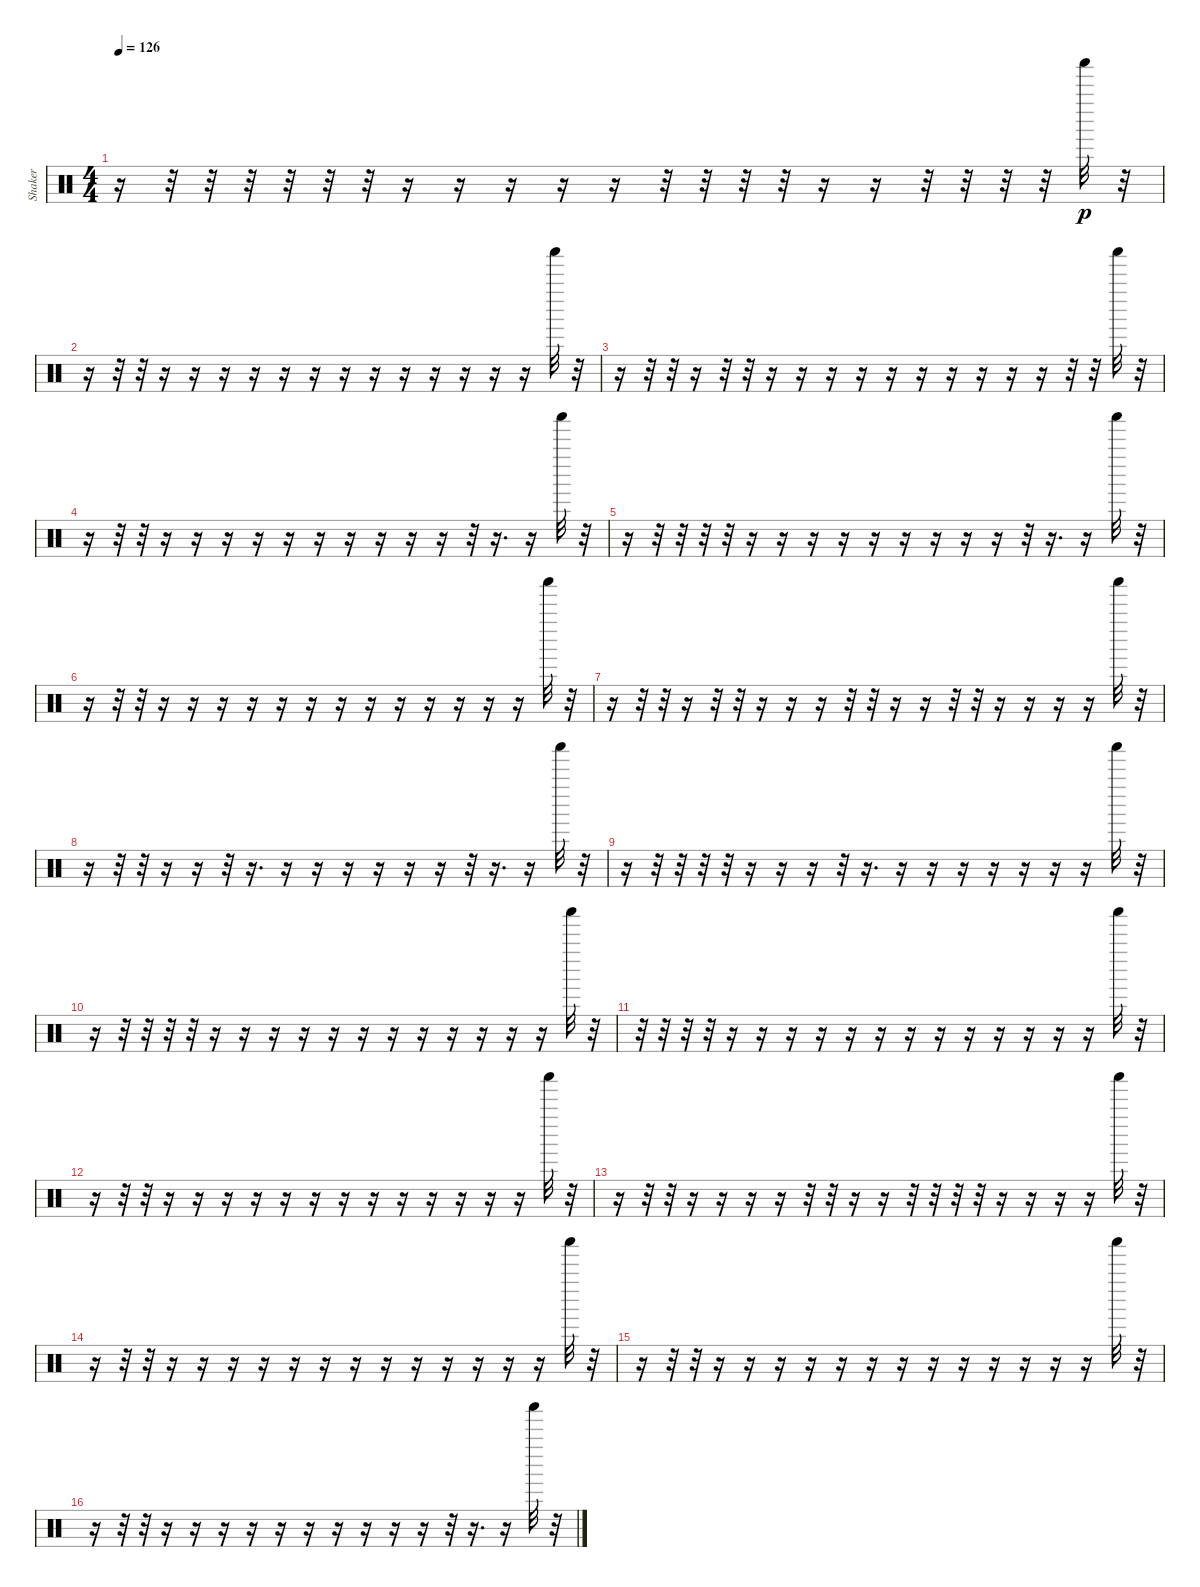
\track ("Shaker" "Shaker") {instrument percussion}
\staff {score}
\articulation defaults
\ts (4 4)
\tempo 126
\clef neutral
\ks c
r.16{dy p} r.32 r.32 r.32 r.32 r.32 r.32 r.16 r.16 r.16 r.16 r.16 r.32 r.32 r.32 r.32 r.16 r.16 r.32 r.32 r.32 r.32 "Shaker (hit)".32 r.32 |
r.16 r.32 r.32 r.16 r.16 r.16 r.16 r.16 r.16 r.16 r.16 r.16 r.16 r.16 r.16 r.16 "Shaker (hit)".32 r.32 |
r.16 r.32 r.32 r.16 r.32 r.32 r.16 r.16 r.16 r.16 r.16 r.16 r.16 r.16 r.16 r.16 r.32 r.32 "Shaker (hit)".32 r.32 |
r.16 r.32 r.32 r.16 r.16 r.16 r.16 r.16 r.16 r.16 r.16 r.16 r.16 r.32 r.16{d} r.16 "Shaker (hit)".32 r.32 |
r.16 r.32 r.32 r.32 r.32 r.16 r.16 r.16 r.16 r.16 r.16 r.16 r.16 r.16 r.32 r.16{d} r.16 "Shaker (hit)".32 r.32 |
r.16 r.32 r.32 r.16 r.16 r.16 r.16 r.16 r.16 r.16 r.16 r.16 r.16 r.16 r.16 r.16 "Shaker (hit)".32 r.32 |
r.16 r.32 r.32 r.16 r.32 r.32 r.16 r.16 r.16 r.32 r.32 r.16 r.16 r.32 r.32 r.16 r.16 r.16 r.16 "Shaker (hit)".32 r.32 |
r.16 r.32 r.32 r.16 r.16 r.32 r.16{d} r.16 r.16 r.16 r.16 r.16 r.16 r.32 r.16{d} r.16 "Shaker (hit)".32 r.32 |
r.16 r.32 r.32 r.32 r.32 r.16 r.16 r.16 r.32 r.16{d} r.16 r.16 r.16 r.16 r.16 r.16 r.16 "Shaker (hit)".32 r.32 |
r.16 r.32 r.32 r.32 r.32 r.16 r.16 r.16 r.16 r.16 r.16 r.16 r.16 r.16 r.16 r.16 r.16 "Shaker (hit)".32 r.32 |
r.32 r.32 r.32 r.32 r.16 r.16 r.16 r.16 r.16 r.16 r.16 r.16 r.16 r.16 r.16 r.16 r.16 "Shaker (hit)".32 r.32 |
r.16 r.32 r.32 r.16 r.16 r.16 r.16 r.16 r.16 r.16 r.16 r.16 r.16 r.16 r.16 r.16 "Shaker (hit)".32 r.32 |
r.16 r.32 r.32 r.16 r.16 r.16 r.16 r.32 r.32 r.16 r.16 r.32 r.32 r.32 r.32 r.16 r.16 r.16 r.16 "Shaker (hit)".32 r.32 |
r.16 r.32 r.32 r.16 r.16 r.16 r.16 r.16 r.16 r.16 r.16 r.16 r.16 r.16 r.16 r.16 "Shaker (hit)".32 r.32 |
r.16 r.32 r.32 r.16 r.16 r.16 r.16 r.16 r.16 r.16 r.16 r.16 r.16 r.16 r.16 r.16 "Shaker (hit)".32 r.32 |
r.16 r.32 r.32 r.16 r.16 r.16 r.16 r.16 r.16 r.16 r.16 r.16 r.16 r.32 r.16{d} r.16 "Shaker (hit)".32 r.32
